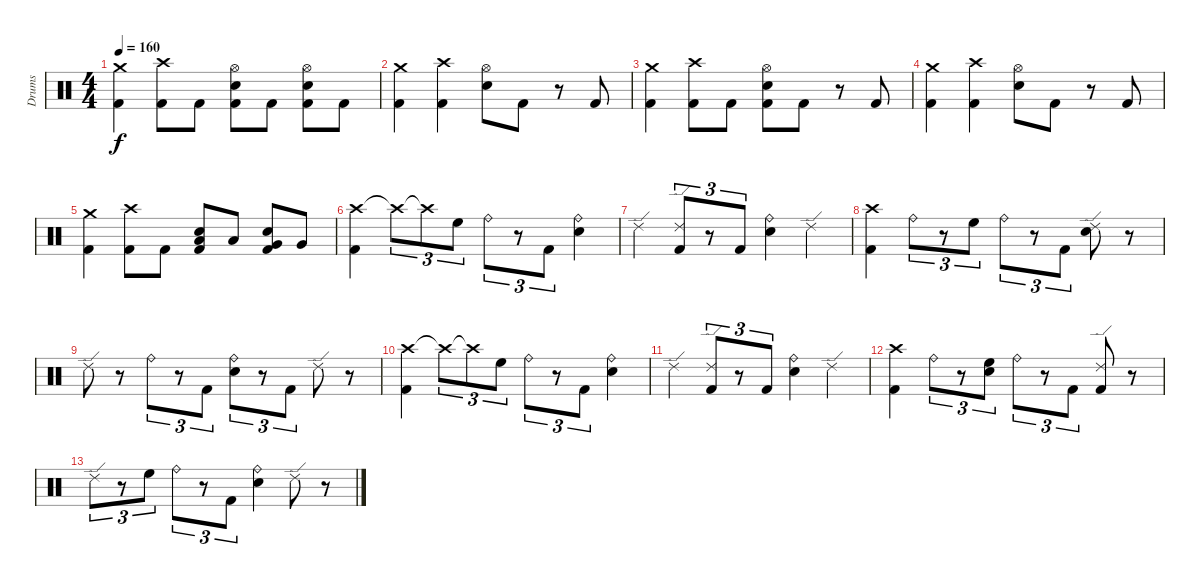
\track ("Drums" "Drums") {instrument percussion}
\staff {score}
\articulation defaults
\ts (4 4)
\tempo 160
\clef neutral
\ks c
("Crash medium (hit)" "Kick (hit) 2").4{dy f} ("Crash high (hit)" "Kick (hit) 2").8 "Kick (hit) 2".8 ("Snare (hit) 2" "Hi-Hat (open)" "Kick (hit) 2").8 "Kick (hit) 2".8 ("Snare (hit) 2" "Hi-Hat (open)" "Kick (hit) 2").8 "Kick (hit) 2".8 |
("Crash medium (hit)" "Kick (hit) 2").4 ("Crash high (hit)" "Kick (hit) 2").4 ("Snare (hit) 2" "Hi-Hat (open)").8 "Kick (hit) 2".8 r.8 "Kick (hit) 2".8 |
("Crash medium (hit)" "Kick (hit) 2").4 ("Crash high (hit)" "Kick (hit) 2").8 "Kick (hit) 2".8 ("Snare (hit) 2" "Hi-Hat (open)" "Kick (hit) 2").8 "Kick (hit) 2".8 r.8 "Kick (hit) 2".8 |
("Crash medium (hit)" "Kick (hit) 2").4 ("Crash high (hit)" "Kick (hit) 2").4 ("Snare (hit) 2" "Hi-Hat (open)").8 "Kick (hit) 2".8 r.8 "Kick (hit) 2".8 |
("Crash medium (hit)" "Kick (hit) 2").4 ("Crash high (hit)" "Kick (hit) 2").8 "Kick (hit) 2".8 ("Snare (hit) 2" "Low Tom (hit)" "Kick (hit) 2").8 "Low Tom (hit)".8 ("Snare (hit) 2" "Very Low Tom (hit)" "Kick (hit) 2").8 "Very Low Tom (hit)".8 |
("Crash high (hit)" "Kick (hit) 2").4 "Crash high (hit)"{t}.8{tu (3 2)} "Crash high (hit)"{t}.8{tu (3 2)} "High Floor Tom (hit)".8{tu (3 2)} "Ride (bell)".8{tu (3 2)} r.8{tu (3 2)} "Kick (hit) 2".8{tu (3 2)} ("Snare (hit) 2" "Ride (bell)").4 |
"Ride (edge) 2".4 ("Ride (edge) 2" "Kick (hit) 2").8{tu (3 2)} r.8{tu (3 2)} "Kick (hit) 2".8{tu (3 2)} ("Snare (hit) 2" "Ride (bell)").4 "Ride (edge) 2".4 |
("Crash high (hit)" "Kick (hit) 2").4 "Ride (bell)".8{tu (3 2)} r.8{tu (3 2)} "High Floor Tom (hit)".8{tu (3 2)} "Ride (bell)".8{tu (3 2)} r.8{tu (3 2)} "Kick (hit) 2".8{tu (3 2)} ("Snare (hit) 2" "Ride (edge) 2").8 r.8 |
"Ride (edge) 2".8 r.8 "Ride (bell)".8{tu (3 2)} r.8{tu (3 2)} "Kick (hit) 2".8{tu (3 2)} ("Snare (hit) 2" "Ride (bell)").8{tu (3 2)} r.8{tu (3 2)} "Kick (hit) 2".8{tu (3 2)} "Ride (edge) 2".8 r.8 |
("Crash high (hit)" "Kick (hit) 2").4 "Crash high (hit)"{t}.8{tu (3 2)} "Crash high (hit)"{t}.8{tu (3 2)} "High Floor Tom (hit)".8{tu (3 2)} "Ride (bell)".8{tu (3 2)} r.8{tu (3 2)} "Kick (hit) 2".8{tu (3 2)} ("Snare (hit) 2" "Ride (bell)").4 |
"Ride (edge) 2".4 ("Ride (edge) 2" "Kick (hit) 2").8{tu (3 2)} r.8{tu (3 2)} "Kick (hit) 2".8{tu (3 2)} ("Snare (hit) 2" "Ride (bell)").4 "Ride (edge) 2".4 |
("Crash high (hit)" "Kick (hit) 2").4 "Ride (bell)".8{tu (3 2)} r.8{tu (3 2)} ("Snare (hit) 2" "High Floor Tom (hit)").8{tu (3 2)} "Ride (bell)".8{tu (3 2)} r.8{tu (3 2)} "Kick (hit) 2".8{tu (3 2)} ("Ride (edge) 2" "Kick (hit) 2").8 r.8 |
"Ride (edge) 2".8{tu (3 2)} r.8{tu (3 2)} "High Floor Tom (hit)".8{tu (3 2)} "Ride (bell)".8{tu (3 2)} r.8{tu (3 2)} "Kick (hit) 2".8{tu (3 2)} ("Snare (hit) 2" "Ride (bell)").4 "Ride (edge) 2".8 r.8
